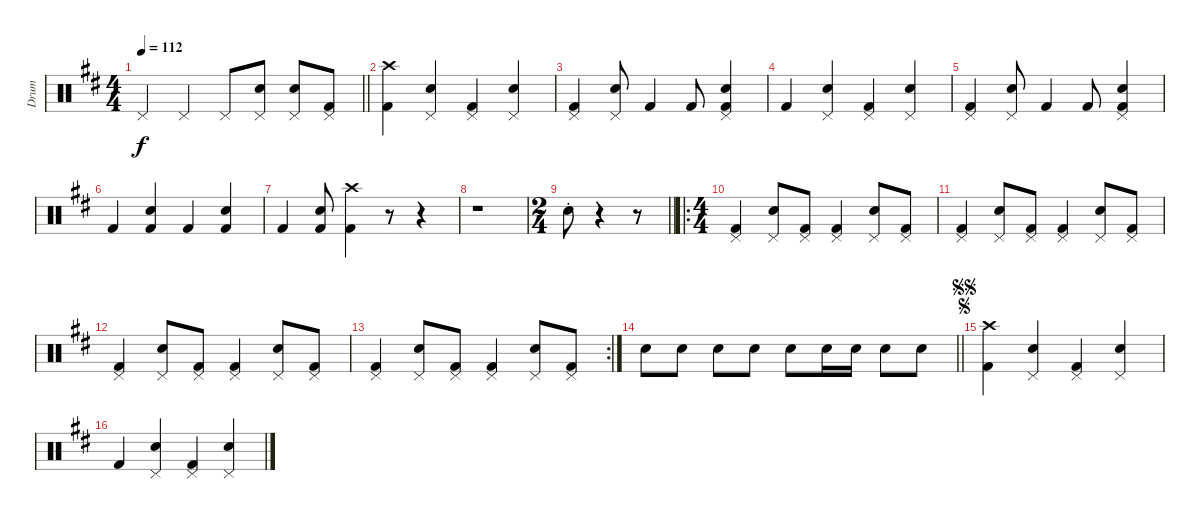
\track ("Drum" "Drum") {instrument percussion}
\staff {score}
\articulation defaults
\ts (4 4)
\tempo 112
\clef neutral
\barLineRight lightlight
\ks d "Pedal Hi-Hat (hit)".4{dy f} "Pedal Hi-Hat (hit)".4 "Pedal Hi-Hat (hit)".8
("Pedal Hi-Hat (hit)" "Electric Snare (hit)").8 ("Pedal Hi-Hat (hit)" "Electric Snare (hit)").8 ("Pedal Hi-Hat (hit)" "Kick (hit) 2").8 |
("Kick (hit) 2" "Crash high (hit)").4 ("Pedal Hi-Hat (hit)" "Snare (hit) 2").4 ("Pedal Hi-Hat (hit)" "Kick (hit) 2").4 ("Pedal Hi-Hat (hit)" "Snare (hit) 2").4 |
("Pedal Hi-Hat (hit)" "Kick (hit) 2").4 ("Pedal Hi-Hat (hit)" "Snare (hit) 2").8 "Kick (hit) 2".4 "Kick (hit) 2".8 ("Pedal Hi-Hat (hit)" "Snare (hit) 2" "Kick (hit) 2").4 |
"Kick (hit) 2".4 ("Pedal Hi-Hat (hit)" "Snare (hit) 2").4 ("Pedal Hi-Hat (hit)" "Kick (hit) 2").4 ("Pedal Hi-Hat (hit)" "Snare (hit) 2").4 |
("Pedal Hi-Hat (hit)" "Kick (hit) 2").4 ("Pedal Hi-Hat (hit)" "Snare (hit) 2").8 "Kick (hit) 2".4 "Kick (hit) 2".8 ("Pedal Hi-Hat (hit)" "Snare (hit) 2" "Kick (hit) 2").4 |
"Kick (hit) 2".4 ("Snare (hit) 2" "Kick (hit) 2").4 "Kick (hit) 2".4 ("Snare (hit) 2" "Kick (hit) 2").4 |
"Kick (hit) 2".4 ("Snare (hit) 2" "Kick (hit) 2").8 ("Crash high (hit)" "Kick (hit) 2").4 r.8 r.4 |
r.1 |
\ts (2 4)
\barLineRight lightlight "Electric Snare (hit)"{st}.8
r.4 r.8 |
\ro
\ts (4 4)
("Pedal Hi-Hat (hit)" "Kick (hit) 2").4 ("Pedal Hi-Hat (hit)" "Snare (hit) 2").8 ("Pedal Hi-Hat (hit)" "Kick (hit) 2").8 ("Pedal Hi-Hat (hit)" "Kick (hit) 2").4 ("Pedal Hi-Hat (hit)" "Snare (hit) 2").8 ("Pedal Hi-Hat (hit)" "Kick (hit) 2").8 |
("Pedal Hi-Hat (hit)" "Kick (hit) 2").4 ("Pedal Hi-Hat (hit)" "Snare (hit) 2").8 ("Pedal Hi-Hat (hit)" "Kick (hit) 2").8 ("Pedal Hi-Hat (hit)" "Kick (hit) 2").4 ("Pedal Hi-Hat (hit)" "Snare (hit) 2").8 ("Pedal Hi-Hat (hit)" "Kick (hit) 2").8 |
("Pedal Hi-Hat (hit)" "Kick (hit) 2").4 ("Pedal Hi-Hat (hit)" "Snare (hit) 2").8 ("Pedal Hi-Hat (hit)" "Kick (hit) 2").8 ("Pedal Hi-Hat (hit)" "Kick (hit) 2").4 ("Pedal Hi-Hat (hit)" "Snare (hit) 2").8 ("Pedal Hi-Hat (hit)" "Kick (hit) 2").8 |
\rc 2
("Pedal Hi-Hat (hit)" "Kick (hit) 2").4 ("Pedal Hi-Hat (hit)" "Snare (hit) 2").8 ("Pedal Hi-Hat (hit)" "Kick (hit) 2").8 ("Pedal Hi-Hat (hit)" "Kick (hit) 2").4 ("Pedal Hi-Hat (hit)" "Snare (hit) 2").8 ("Pedal Hi-Hat (hit)" "Kick (hit) 2").8 |
\barLineRight lightlight "Snare (hit) 2".8{volume 8} "Snare (hit) 2".8{volume 16} "Snare (hit) 2".8 "Snare (hit) 2".8 "Snare (hit) 2".8 "Snare (hit) 2".16 "Electric Snare (hit)".16 "Snare (hit) 2".8 "Snare (hit) 2".8
|
\jump segno
\jump segnosegno
("Kick (hit) 2" "Crash high (hit)").4 ("Pedal Hi-Hat (hit)" "Snare (hit) 2").4 ("Pedal Hi-Hat (hit)" "Kick (hit) 2").4 ("Pedal Hi-Hat (hit)" "Snare (hit) 2").4 |
"Kick (hit) 2".4 ("Pedal Hi-Hat (hit)" "Snare (hit) 2").4 ("Pedal Hi-Hat (hit)" "Kick (hit) 2").4 ("Pedal Hi-Hat (hit)" "Snare (hit) 2").4
